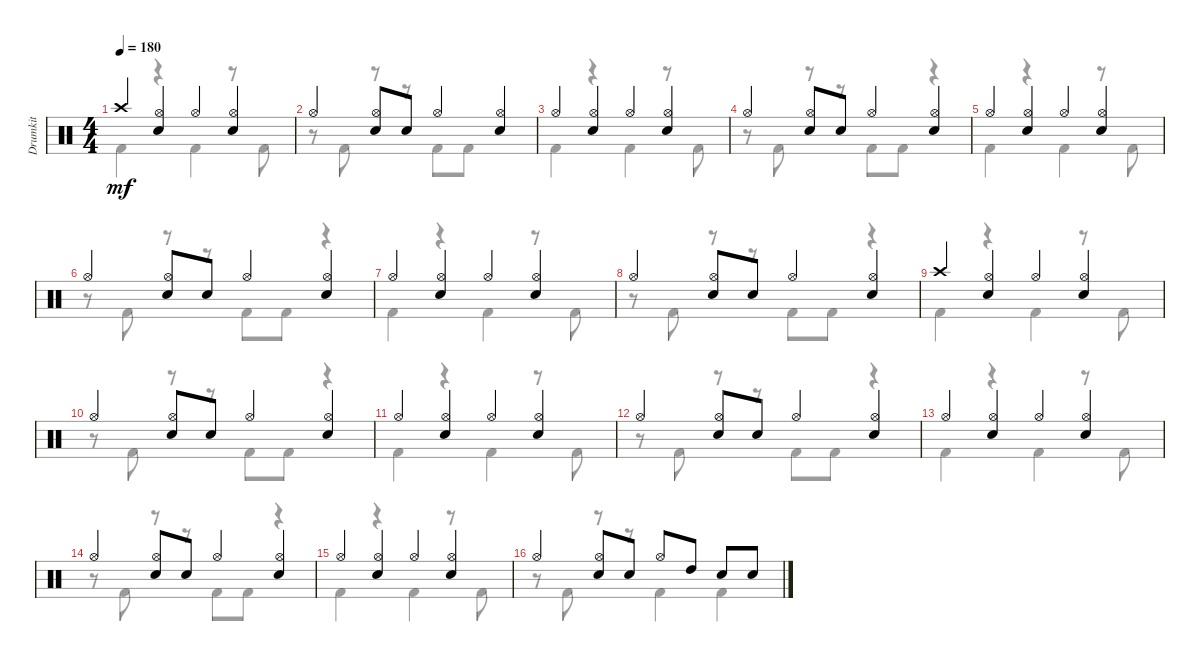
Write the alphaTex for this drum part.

\track ("Drumkit" "Drumkit") {instrument percussion}
\staff {score}
\articulation defaults
\voice
\ts (4 4)
\tempo 180
\clef neutral
\ks c "Crash high (hit)".4{dy mf}
("Hi-Hat (open)" "Snare (hit) 2").4 "Hi-Hat (open)".4 ("Hi-Hat (open)" "Snare (hit) 2").4 |
"Hi-Hat (open)".4 ("Hi-Hat (open)" "Snare (hit) 2").8 "Snare (hit) 2".8 "Hi-Hat (open)".4 ("Hi-Hat (open)" "Snare (hit) 2").4 |
"Hi-Hat (open)".4 ("Hi-Hat (open)" "Snare (hit) 2").4 "Hi-Hat (open)".4 ("Hi-Hat (open)" "Snare (hit) 2").4 |
"Hi-Hat (open)".4 ("Hi-Hat (open)" "Snare (hit) 2").8 "Snare (hit) 2".8 "Hi-Hat (open)".4 ("Hi-Hat (open)" "Snare (hit) 2").4 |
"Hi-Hat (open)".4 ("Hi-Hat (open)" "Snare (hit) 2").4 "Hi-Hat (open)".4 ("Hi-Hat (open)" "Snare (hit) 2").4 |
"Hi-Hat (open)".4 ("Hi-Hat (open)" "Snare (hit) 2").8 "Snare (hit) 2".8 "Hi-Hat (open)".4 ("Hi-Hat (open)" "Snare (hit) 2").4 |
"Hi-Hat (open)".4 ("Hi-Hat (open)" "Snare (hit) 2").4 "Hi-Hat (open)".4 ("Hi-Hat (open)" "Snare (hit) 2").4 |
"Hi-Hat (open)".4 ("Hi-Hat (open)" "Snare (hit) 2").8 "Snare (hit) 2".8 "Hi-Hat (open)".4 ("Hi-Hat (open)" "Snare (hit) 2").4 |
"Crash high (hit)".4 ("Hi-Hat (open)" "Snare (hit) 2").4 "Hi-Hat (open)".4 ("Hi-Hat (open)" "Snare (hit) 2").4 |
"Hi-Hat (open)".4 ("Hi-Hat (open)" "Snare (hit) 2").8 "Snare (hit) 2".8 "Hi-Hat (open)".4 ("Hi-Hat (open)" "Snare (hit) 2").4 |
"Hi-Hat (open)".4 ("Hi-Hat (open)" "Snare (hit) 2").4 "Hi-Hat (open)".4 ("Hi-Hat (open)" "Snare (hit) 2").4 |
"Hi-Hat (open)".4 ("Hi-Hat (open)" "Snare (hit) 2").8 "Snare (hit) 2".8 "Hi-Hat (open)".4 ("Hi-Hat (open)" "Snare (hit) 2").4 |
"Hi-Hat (open)".4 ("Hi-Hat (open)" "Snare (hit) 2").4 "Hi-Hat (open)".4 ("Hi-Hat (open)" "Snare (hit) 2").4 |
"Hi-Hat (open)".4 ("Hi-Hat (open)" "Snare (hit) 2").8 "Snare (hit) 2".8 "Hi-Hat (open)".4 ("Hi-Hat (open)" "Snare (hit) 2").4 |
"Hi-Hat (open)".4 ("Hi-Hat (open)" "Snare (hit) 2").4 "Hi-Hat (open)".4 ("Hi-Hat (open)" "Snare (hit) 2").4 |
"Hi-Hat (open)".4 ("Hi-Hat (open)" "Snare (hit) 2").8 "Snare (hit) 2".8 "Hi-Hat (open)".8 "High Tom (hit)".8 "Snare (hit) 2".8 "Snare (hit) 2".8
\voice
\clef neutral
\ottava regular
\simile none
\ks c "Kick (hit) 2".4{dy mf}
r.4 "Kick (hit) 2".4 r.8 "Kick (hit) 2".8 |
r.8 "Kick (hit) 2".8 r.8 r.8 "Kick (hit) 2".8 "Kick (hit) 2".8 |
"Kick (hit) 2".4 r.4 "Kick (hit) 2".4 r.8 "Kick (hit) 2".8 |
r.8 "Kick (hit) 2".8 r.8 r.8 "Kick (hit) 2".8 "Kick (hit) 2".8 r.4 |
"Kick (hit) 2".4 r.4 "Kick (hit) 2".4 r.8 "Kick (hit) 2".8 |
r.8 "Kick (hit) 2".8 r.8 r.8 "Kick (hit) 2".8 "Kick (hit) 2".8 r.4 |
"Kick (hit) 2".4 r.4 "Kick (hit) 2".4 r.8 "Kick (hit) 2".8 |
r.8 "Kick (hit) 2".8 r.8 r.8 "Kick (hit) 2".8 "Kick (hit) 2".8 r.4 |
"Kick (hit) 2".4 r.4 "Kick (hit) 2".4 r.8 "Kick (hit) 2".8 |
r.8 "Kick (hit) 2".8 r.8 r.8 "Kick (hit) 2".8 "Kick (hit) 2".8 r.4 |
"Kick (hit) 2".4 r.4 "Kick (hit) 2".4 r.8 "Kick (hit) 2".8 |
r.8 "Kick (hit) 2".8 r.8 r.8 "Kick (hit) 2".8 "Kick (hit) 2".8 r.4 |
"Kick (hit) 2".4 r.4 "Kick (hit) 2".4 r.8 "Kick (hit) 2".8 |
r.8 "Kick (hit) 2".8 r.8 r.8 "Kick (hit) 2".8 "Kick (hit) 2".8 r.4 |
"Kick (hit) 2".4 r.4 "Kick (hit) 2".4 r.8 "Kick (hit) 2".8 |
r.8 "Kick (hit) 2".8 r.8 r.8 "Kick (hit) 2".4 "Kick (hit) 2".4
